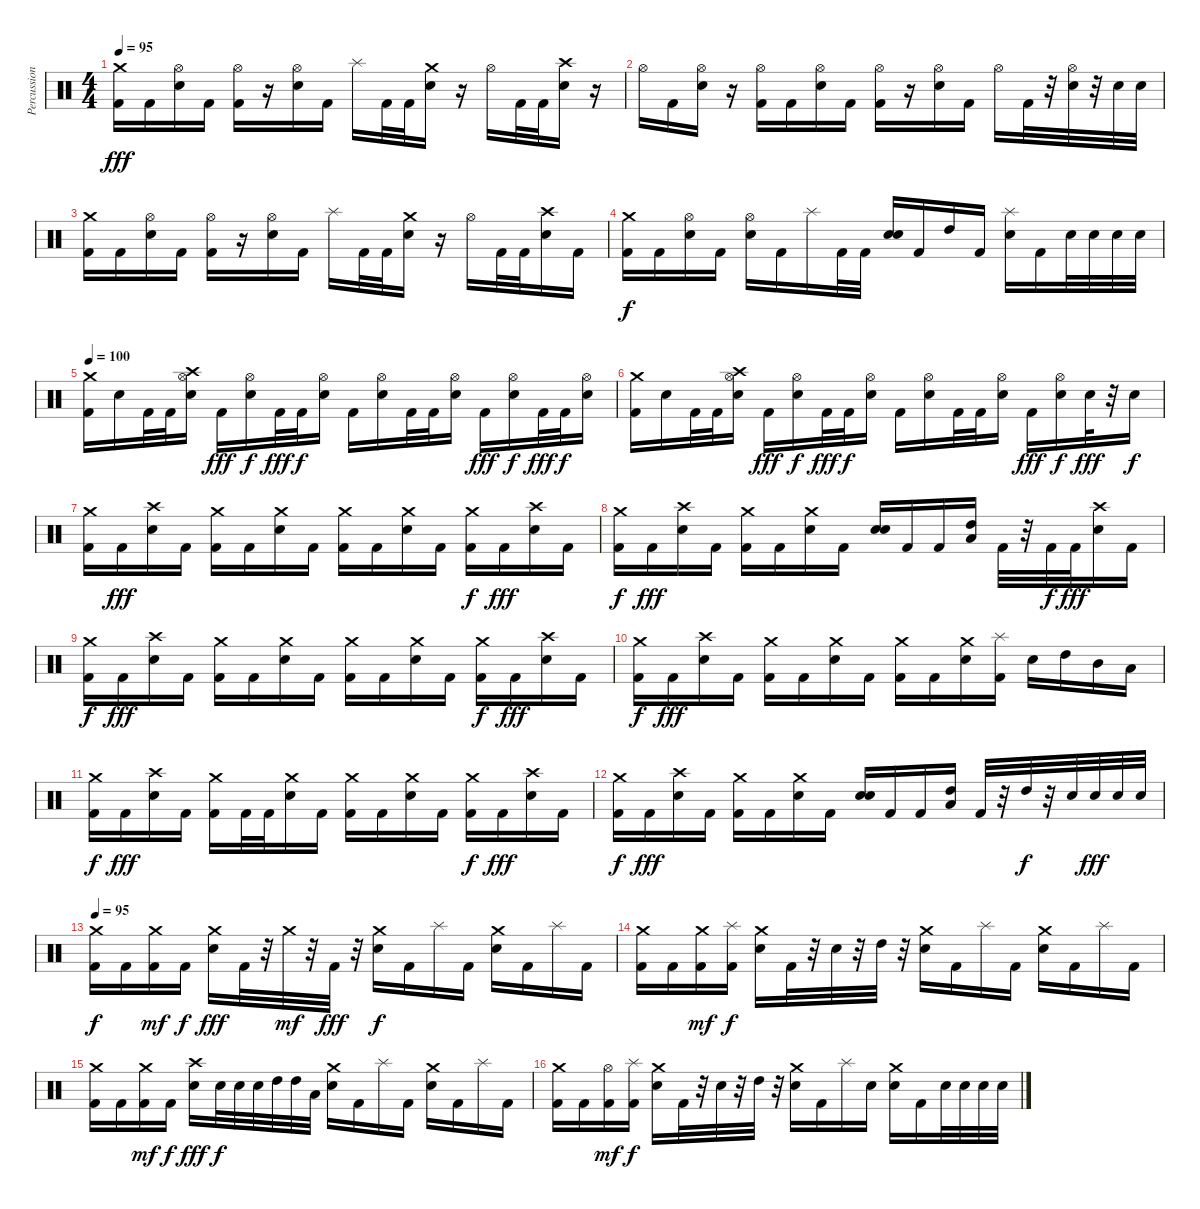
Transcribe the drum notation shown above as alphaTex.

\track ("Percussioni" "Percussion") {instrument percussion}
\staff {score}
\articulation defaults
\ts (4 4)
\tempo 95
\clef neutral
\ks c
("Crash medium (hit)" "Kick (hit) 2").16{dy fff} "Kick (hit) 2".16 ("Hi-Hat (open)" "Electric Snare (hit)").16 "Kick (hit) 2".16 ("Hi-Hat (open)" "Kick (hit) 2").16 r.16 ("Hi-Hat (open)" "Electric Snare (hit)").16 "Kick (hit) 2".16 "Splash (hit)".16 "Kick (hit) 2".32 "Kick (hit) 2".32 ("Crash medium (hit)" "Electric Snare (hit)").16 r.16 "Hi-Hat (open)".16 "Kick (hit) 2".32 "Kick (hit) 2".32 ("Crash high (hit)" "Electric Snare (hit)").16 r.16 |
"Hi-Hat (open)".16 "Kick (hit) 2".16 ("Hi-Hat (open)" "Electric Snare (hit)").16 r.16 ("Hi-Hat (open)" "Kick (hit) 2").16 "Kick (hit) 2".16 ("Hi-Hat (open)" "Electric Snare (hit)").16 "Kick (hit) 2".16 ("Hi-Hat (open)" "Kick (hit) 2").16 r.16 ("Hi-Hat (open)" "Electric Snare (hit)").16 "Kick (hit) 2".16 "Hi-Hat (open)".16 "Kick (hit) 2".32 r.32 ("Hi-Hat (open)" "Electric Snare (hit)").32 r.32 "Electric Snare (hit)".32 "Electric Snare (hit)".32 |
("Crash medium (hit)" "Kick (hit) 2").16 "Kick (hit) 2".16 ("Hi-Hat (open)" "Electric Snare (hit)").16 "Kick (hit) 2".16 ("Hi-Hat (open)" "Kick (hit) 2").16 r.16 ("Hi-Hat (open)" "Electric Snare (hit)").16 "Kick (hit) 2".16 "Splash (hit)".16 "Kick (hit) 2".32 "Kick (hit) 2".32 ("Crash medium (hit)" "Electric Snare (hit)").16 r.16 "Hi-Hat (open)".16 "Kick (hit) 2".32 "Kick (hit) 2".32 ("Crash high (hit)" "Electric Snare (hit)").16 "Kick (hit) 2".16 |
("Crash medium (hit)" "Kick (hit) 2").16{dy f} "Kick (hit) 2".16 ("Hi-Hat (open)" "Electric Snare (hit)").16 "Kick (hit) 2".16 ("Hi-Hat (open)" "Electric Snare (hit)").16 "Kick (hit) 2".16 "Splash (hit)".16 "Kick (hit) 2".32 "Kick (hit) 2".32 ("Electric Snare (hit)" "Electric Snare (hit)").16{bd 240} "Kick (hit) 2".16 "High Tom (hit)".16 "Kick (hit) 2".16 ("Splash (hit)" "Electric Snare (hit)").16 "Kick (hit) 2".16 "Electric Snare (hit)".32 "Electric Snare (hit)".32 "Electric Snare (hit)".32 "Electric Snare (hit)".32 |
\tempo 100
("Crash medium (hit)" "Kick (hit) 2").16 "Electric Snare (hit)".16 "Kick (hit) 2".32 "Kick (hit) 2".32 ("Crash high (hit)" "Hi-Hat (open)" "Electric Snare (hit)").16 "Kick (hit) 2".16{dy fff} ("Hi-Hat (open)" "Electric Snare (hit)").16{dy f} "Kick (hit) 2".32{dy fff} "Kick (hit) 2".32{dy f} ("Hi-Hat (open)" "Electric Snare (hit)").16 "Kick (hit) 2".16 ("Hi-Hat (open)" "Electric Snare (hit)").16 "Kick (hit) 2".32 "Kick (hit) 2".32 ("Hi-Hat (open)" "Electric Snare (hit)").16 "Kick (hit) 2".16{dy fff} ("Hi-Hat (open)" "Electric Snare (hit)").16{dy f} "Kick (hit) 2".32{dy fff} "Kick (hit) 2".32{dy f} ("Hi-Hat (open)" "Electric Snare (hit)").16 |
("Crash medium (hit)" "Kick (hit) 2").16 "Electric Snare (hit)".16 "Kick (hit) 2".32 "Kick (hit) 2".32 ("Crash high (hit)" "Hi-Hat (open)" "Electric Snare (hit)").16 "Kick (hit) 2".16{dy fff} ("Hi-Hat (open)" "Electric Snare (hit)").16{dy f} "Kick (hit) 2".32{dy fff} "Kick (hit) 2".32{dy f} ("Hi-Hat (open)" "Electric Snare (hit)").16 "Kick (hit) 2".16 ("Hi-Hat (open)" "Electric Snare (hit)").16 "Kick (hit) 2".32 "Kick (hit) 2".32 ("Hi-Hat (open)" "Electric Snare (hit)").16 "Kick (hit) 2".16{dy fff} ("Hi-Hat (open)" "Electric Snare (hit)").16{dy f} "Electric Snare (hit)".32{dy fff} r.32 "Electric Snare (hit)".16{dy f} |
("Crash medium (hit)" "Kick (hit) 2").16 "Kick (hit) 2".16{dy fff} ("Crash high (hit)" "Electric Snare (hit)").16 "Kick (hit) 2".16 ("Crash medium (hit)" "Kick (hit) 2").16 "Kick (hit) 2".16 ("Crash medium (hit)" "Electric Snare (hit)").16 "Kick (hit) 2".16 ("Crash medium (hit)" "Kick (hit) 2").16 "Kick (hit) 2".16 ("Crash medium (hit)" "Electric Snare (hit)").16 "Kick (hit) 2".16 ("Crash medium (hit)" "Kick (hit) 2").16{dy f} "Kick (hit) 2".16{dy fff} ("Crash high (hit)" "Electric Snare (hit)").16 "Kick (hit) 2".16 |
("Crash medium (hit)" "Kick (hit) 2").16{dy f} "Kick (hit) 2".16{dy fff} ("Crash high (hit)" "Electric Snare (hit)").16 "Kick (hit) 2".16 ("Crash medium (hit)" "Kick (hit) 2").16 "Kick (hit) 2".16 ("Crash medium (hit)" "Electric Snare (hit)").16 "Kick (hit) 2".16 ("Electric Snare (hit)" "Electric Snare (hit)").16{bd 240} "Kick (hit) 2".16 "Kick (hit) 2".16 ("High Tom (hit)" "Low Tom (hit)").16{bd 240} "Kick (hit) 2".32 r.32 "Kick (hit) 2".32{dy f} "Kick (hit) 2".32{dy fff} ("Crash high (hit)" "Electric Snare (hit)").16 "Kick (hit) 2".16 |
("Crash medium (hit)" "Kick (hit) 2").16{dy f} "Kick (hit) 2".16{dy fff} ("Crash high (hit)" "Electric Snare (hit)").16 "Kick (hit) 2".16 ("Crash medium (hit)" "Kick (hit) 2").16 "Kick (hit) 2".16 ("Crash medium (hit)" "Electric Snare (hit)").16 "Kick (hit) 2".16 ("Crash medium (hit)" "Kick (hit) 2").16 "Kick (hit) 2".16 ("Crash medium (hit)" "Electric Snare (hit)").16 "Kick (hit) 2".16 ("Crash medium (hit)" "Kick (hit) 2").16{dy f} "Kick (hit) 2".16{dy fff} ("Crash high (hit)" "Electric Snare (hit)").16 "Kick (hit) 2".16 |
("Crash medium (hit)" "Kick (hit) 2").16{dy f} "Kick (hit) 2".16{dy fff} ("Crash high (hit)" "Electric Snare (hit)").16 "Kick (hit) 2".16 ("Crash medium (hit)" "Kick (hit) 2").16 "Kick (hit) 2".16 ("Crash medium (hit)" "Electric Snare (hit)").16 "Kick (hit) 2".16 ("Crash medium (hit)" "Kick (hit) 2").16 "Kick (hit) 2".16 ("Crash medium (hit)" "Electric Snare (hit)").16 ("Splash (hit)" "Kick (hit) 2").16 "Electric Snare (hit)".16 "High Tom (hit)".16 "Mid Tom (hit)".16 "Low Tom (hit)".16 |
("Crash medium (hit)" "Kick (hit) 2").16{dy f} "Kick (hit) 2".16{dy fff} ("Crash high (hit)" "Electric Snare (hit)").16 "Kick (hit) 2".16 ("Crash medium (hit)" "Kick (hit) 2").16 "Kick (hit) 2".32 "Kick (hit) 2".32 ("Crash medium (hit)" "Electric Snare (hit)").16 "Kick (hit) 2".16 ("Crash medium (hit)" "Kick (hit) 2").16 "Kick (hit) 2".16 ("Crash medium (hit)" "Electric Snare (hit)").16 "Kick (hit) 2".16 ("Crash medium (hit)" "Kick (hit) 2").16{dy f} "Kick (hit) 2".16{dy fff} ("Crash high (hit)" "Electric Snare (hit)").16 "Kick (hit) 2".16 |
("Crash medium (hit)" "Kick (hit) 2").16{dy f} "Kick (hit) 2".16{dy fff} ("Crash high (hit)" "Electric Snare (hit)").16 "Kick (hit) 2".16 ("Crash medium (hit)" "Kick (hit) 2").16 "Kick (hit) 2".16 ("Crash medium (hit)" "Electric Snare (hit)").16 "Kick (hit) 2".16 ("Electric Snare (hit)" "Electric Snare (hit)").16{bd 240} "Kick (hit) 2".16 "Kick (hit) 2".16 ("High Tom (hit)" "Low Tom (hit)").16{bd 240} "Kick (hit) 2".32 r.32 "High Tom (hit)".32{dy f} r.32 "Electric Snare (hit)".32 "Electric Snare (hit)".32{dy fff} "Electric Snare (hit)".32 "Electric Snare (hit)".32 |
\tempo 95
("Crash medium (hit)" "Kick (hit) 2").16{dy f} "Kick (hit) 2".16 ("Crash medium (hit)" "Kick (hit) 2").16{dy mf} "Kick (hit) 2".16{dy f} ("Crash medium (hit)" "Electric Snare (hit)").16{dy fff} "Kick (hit) 2".32 r.32 "Crash medium (hit)".32{dy mf} r.32 "Kick (hit) 2".32{dy fff} r.32 ("Crash medium (hit)" "Electric Snare (hit)").16{dy f} "Kick (hit) 2".16 "Splash (hit)".16 "Kick (hit) 2".16 ("Crash medium (hit)" "Electric Snare (hit)").16 "Kick (hit) 2".16 "Splash (hit)".16 "Kick (hit) 2".16 |
("Crash medium (hit)" "Kick (hit) 2").16 "Kick (hit) 2".16 ("Crash medium (hit)" "Kick (hit) 2").16{dy mf} ("Splash (hit)" "Kick (hit) 2").16{dy f} ("Crash medium (hit)" "Electric Snare (hit)").16 "Kick (hit) 2".32 r.32 "Electric Snare (hit)".32 r.32 "High Tom (hit)".32 r.32 ("Crash medium (hit)" "Electric Snare (hit)").16 "Kick (hit) 2".16 "Splash (hit)".16 "Kick (hit) 2".16 ("Crash medium (hit)" "Electric Snare (hit)").16 "Kick (hit) 2".16 "Splash (hit)".16 "Kick (hit) 2".16 |
("Crash medium (hit)" "Kick (hit) 2").16 "Kick (hit) 2".16 ("Crash medium (hit)" "Kick (hit) 2").16{dy mf} "Kick (hit) 2".16{dy f} ("Crash high (hit)" "Electric Snare (hit)").16{dy fff} "Electric Snare (hit)".32{dy f} "Electric Snare (hit)".32 "Electric Snare (hit)".32 "High Tom (hit)".32 "High Tom (hit)".32 "Low Tom (hit)".32 ("Crash medium (hit)" "Electric Snare (hit)").16 "Kick (hit) 2".16 "Splash (hit)".16 "Kick (hit) 2".16 ("Crash medium (hit)" "Electric Snare (hit)").16 "Kick (hit) 2".16 "Splash (hit)".16 "Kick (hit) 2".16 |
("Crash medium (hit)" "Kick (hit) 2").16 "Kick (hit) 2".16 ("Hi-Hat (open)" "Kick (hit) 2").16{dy mf} ("Splash (hit)" "Kick (hit) 2").16{dy f} ("Crash medium (hit)" "Electric Snare (hit)").16 "Kick (hit) 2".32 r.32 "Electric Snare (hit)".32 r.32 "High Tom (hit)".32 r.32 ("Crash medium (hit)" "Electric Snare (hit)").16 "Kick (hit) 2".16 "Splash (hit)".16 "Electric Snare (hit)".16 ("Crash medium (hit)" "Electric Snare (hit)").16 "Kick (hit) 2".16 "Electric Snare (hit)".32 "Electric Snare (hit)".32 "Electric Snare (hit)".32 "Electric Snare (hit)".32
